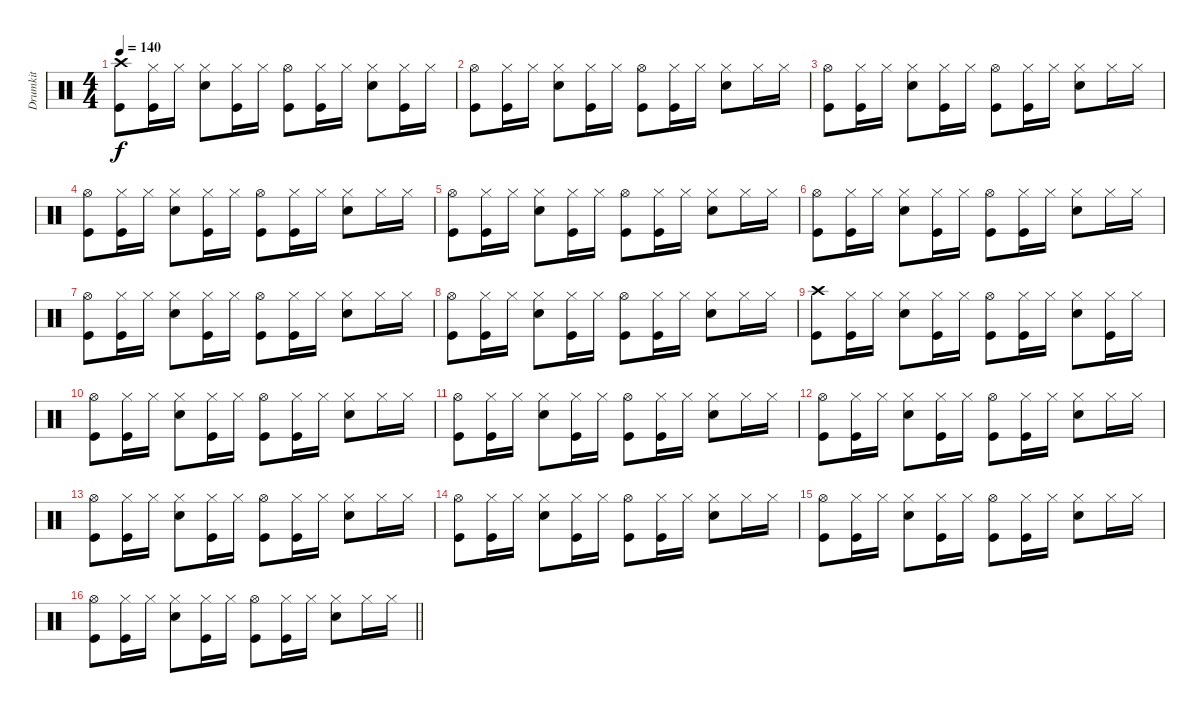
\track ("Drumkit" "Drumkit") {instrument percussion}
\staff {score}
\articulation defaults
\ts (4 4)
\tempo 140
\clef neutral
\ks c
("Crash high (hit)" "Kick (hit)").8{dy f} ("Hi-Hat (closed)" "Kick (hit)").16 "Hi-Hat (closed)".16 ("Snare (hit) 2" "Hi-Hat (closed)").8 ("Hi-Hat (closed)" "Kick (hit)").16 "Hi-Hat (closed)".16 ("Hi-Hat (open)" "Kick (hit)").8 ("Hi-Hat (closed)" "Kick (hit)").16 "Hi-Hat (closed)".16 ("Hi-Hat (closed)" "Snare (hit) 2").8 ("Hi-Hat (closed)" "Kick (hit)").16 "Hi-Hat (closed)".16 |
("Kick (hit)" "Hi-Hat (open)").8 ("Hi-Hat (closed)" "Kick (hit)").16 "Hi-Hat (closed)".16 ("Hi-Hat (closed)" "Snare (hit) 2").8 ("Hi-Hat (closed)" "Kick (hit)").16 "Hi-Hat (closed)".16 ("Hi-Hat (open)" "Kick (hit)").8 ("Hi-Hat (closed)" "Kick (hit)").16 "Hi-Hat (closed)".16 ("Hi-Hat (closed)" "Snare (hit) 2").8 "Hi-Hat (closed)".16 "Hi-Hat (closed)".16 |
("Kick (hit)" "Hi-Hat (open)").8 ("Hi-Hat (closed)" "Kick (hit)").16 "Hi-Hat (closed)".16 ("Hi-Hat (closed)" "Snare (hit) 2").8 ("Hi-Hat (closed)" "Kick (hit)").16 "Hi-Hat (closed)".16 ("Hi-Hat (open)" "Kick (hit)").8 ("Hi-Hat (closed)" "Kick (hit)").16 "Hi-Hat (closed)".16 ("Hi-Hat (closed)" "Snare (hit) 2").8 "Hi-Hat (closed)".16 "Hi-Hat (closed)".16 |
("Kick (hit)" "Hi-Hat (open)").8 ("Hi-Hat (closed)" "Kick (hit)").16 "Hi-Hat (closed)".16 ("Hi-Hat (closed)" "Snare (hit) 2").8 ("Hi-Hat (closed)" "Kick (hit)").16 "Hi-Hat (closed)".16 ("Hi-Hat (open)" "Kick (hit)").8 ("Hi-Hat (closed)" "Kick (hit)").16 "Hi-Hat (closed)".16 ("Hi-Hat (closed)" "Snare (hit) 2").8 "Hi-Hat (closed)".16 "Hi-Hat (closed)".16 |
("Kick (hit)" "Hi-Hat (open)").8 ("Hi-Hat (closed)" "Kick (hit)").16 "Hi-Hat (closed)".16 ("Hi-Hat (closed)" "Snare (hit) 2").8 ("Hi-Hat (closed)" "Kick (hit)").16 "Hi-Hat (closed)".16 ("Hi-Hat (open)" "Kick (hit)").8 ("Hi-Hat (closed)" "Kick (hit)").16 "Hi-Hat (closed)".16 ("Hi-Hat (closed)" "Snare (hit) 2").8 "Hi-Hat (closed)".16 "Hi-Hat (closed)".16 |
("Kick (hit)" "Hi-Hat (open)").8 ("Hi-Hat (closed)" "Kick (hit)").16 "Hi-Hat (closed)".16 ("Hi-Hat (closed)" "Snare (hit) 2").8 ("Hi-Hat (closed)" "Kick (hit)").16 "Hi-Hat (closed)".16 ("Hi-Hat (open)" "Kick (hit)").8 ("Hi-Hat (closed)" "Kick (hit)").16 "Hi-Hat (closed)".16 ("Hi-Hat (closed)" "Snare (hit) 2").8 "Hi-Hat (closed)".16 "Hi-Hat (closed)".16 |
("Kick (hit)" "Hi-Hat (open)").8 ("Hi-Hat (closed)" "Kick (hit)").16 "Hi-Hat (closed)".16 ("Hi-Hat (closed)" "Snare (hit) 2").8 ("Hi-Hat (closed)" "Kick (hit)").16 "Hi-Hat (closed)".16 ("Hi-Hat (open)" "Kick (hit)").8 ("Hi-Hat (closed)" "Kick (hit)").16 "Hi-Hat (closed)".16 ("Hi-Hat (closed)" "Snare (hit) 2").8 "Hi-Hat (closed)".16 "Hi-Hat (closed)".16 |
("Kick (hit)" "Hi-Hat (open)").8 ("Hi-Hat (closed)" "Kick (hit)").16 "Hi-Hat (closed)".16 ("Hi-Hat (closed)" "Snare (hit) 2").8 ("Hi-Hat (closed)" "Kick (hit)").16 "Hi-Hat (closed)".16 ("Hi-Hat (open)" "Kick (hit)").8 ("Hi-Hat (closed)" "Kick (hit)").16 "Hi-Hat (closed)".16 ("Hi-Hat (closed)" "Snare (hit) 2").8 "Hi-Hat (closed)".16 "Hi-Hat (closed)".16 |
("Crash high (hit)" "Kick (hit)").8 ("Hi-Hat (closed)" "Kick (hit)").16 "Hi-Hat (closed)".16 ("Snare (hit) 2" "Hi-Hat (closed)").8 ("Hi-Hat (closed)" "Kick (hit)").16 "Hi-Hat (closed)".16 ("Hi-Hat (open)" "Kick (hit)").8 ("Hi-Hat (closed)" "Kick (hit)").16 "Hi-Hat (closed)".16 ("Hi-Hat (closed)" "Snare (hit) 2").8 ("Hi-Hat (closed)" "Kick (hit)").16 "Hi-Hat (closed)".16 |
("Kick (hit)" "Hi-Hat (open)").8 ("Hi-Hat (closed)" "Kick (hit)").16 "Hi-Hat (closed)".16 ("Hi-Hat (closed)" "Snare (hit) 2").8 ("Hi-Hat (closed)" "Kick (hit)").16 "Hi-Hat (closed)".16 ("Hi-Hat (open)" "Kick (hit)").8 ("Hi-Hat (closed)" "Kick (hit)").16 "Hi-Hat (closed)".16 ("Hi-Hat (closed)" "Snare (hit) 2").8 "Hi-Hat (closed)".16 "Hi-Hat (closed)".16 |
("Kick (hit)" "Hi-Hat (open)").8 ("Hi-Hat (closed)" "Kick (hit)").16 "Hi-Hat (closed)".16 ("Hi-Hat (closed)" "Snare (hit) 2").8 ("Hi-Hat (closed)" "Kick (hit)").16 "Hi-Hat (closed)".16 ("Hi-Hat (open)" "Kick (hit)").8 ("Hi-Hat (closed)" "Kick (hit)").16 "Hi-Hat (closed)".16 ("Hi-Hat (closed)" "Snare (hit) 2").8 "Hi-Hat (closed)".16 "Hi-Hat (closed)".16 |
("Kick (hit)" "Hi-Hat (open)").8 ("Hi-Hat (closed)" "Kick (hit)").16 "Hi-Hat (closed)".16 ("Hi-Hat (closed)" "Snare (hit) 2").8 ("Hi-Hat (closed)" "Kick (hit)").16 "Hi-Hat (closed)".16 ("Hi-Hat (open)" "Kick (hit)").8 ("Hi-Hat (closed)" "Kick (hit)").16 "Hi-Hat (closed)".16 ("Hi-Hat (closed)" "Snare (hit) 2").8 "Hi-Hat (closed)".16 "Hi-Hat (closed)".16 |
("Kick (hit)" "Hi-Hat (open)").8 ("Hi-Hat (closed)" "Kick (hit)").16 "Hi-Hat (closed)".16 ("Hi-Hat (closed)" "Snare (hit) 2").8 ("Hi-Hat (closed)" "Kick (hit)").16 "Hi-Hat (closed)".16 ("Hi-Hat (open)" "Kick (hit)").8 ("Hi-Hat (closed)" "Kick (hit)").16 "Hi-Hat (closed)".16 ("Hi-Hat (closed)" "Snare (hit) 2").8 "Hi-Hat (closed)".16 "Hi-Hat (closed)".16 |
("Kick (hit)" "Hi-Hat (open)").8 ("Hi-Hat (closed)" "Kick (hit)").16 "Hi-Hat (closed)".16 ("Hi-Hat (closed)" "Snare (hit) 2").8 ("Hi-Hat (closed)" "Kick (hit)").16 "Hi-Hat (closed)".16 ("Hi-Hat (open)" "Kick (hit)").8 ("Hi-Hat (closed)" "Kick (hit)").16 "Hi-Hat (closed)".16 ("Hi-Hat (closed)" "Snare (hit) 2").8 "Hi-Hat (closed)".16 "Hi-Hat (closed)".16 |
("Kick (hit)" "Hi-Hat (open)").8 ("Hi-Hat (closed)" "Kick (hit)").16 "Hi-Hat (closed)".16 ("Hi-Hat (closed)" "Snare (hit) 2").8 ("Hi-Hat (closed)" "Kick (hit)").16 "Hi-Hat (closed)".16 ("Hi-Hat (open)" "Kick (hit)").8 ("Hi-Hat (closed)" "Kick (hit)").16 "Hi-Hat (closed)".16 ("Hi-Hat (closed)" "Snare (hit) 2").8 "Hi-Hat (closed)".16 "Hi-Hat (closed)".16 |
\barLineRight lightlight
("Kick (hit)" "Hi-Hat (open)").8 ("Hi-Hat (closed)" "Kick (hit)").16 "Hi-Hat (closed)".16 ("Hi-Hat (closed)" "Snare (hit) 2").8 ("Hi-Hat (closed)" "Kick (hit)").16 "Hi-Hat (closed)".16 ("Hi-Hat (open)" "Kick (hit)").8 ("Hi-Hat (closed)" "Kick (hit)").16 "Hi-Hat (closed)".16 ("Hi-Hat (closed)" "Snare (hit) 2").8 "Hi-Hat (closed)".16 "Hi-Hat (closed)".16
